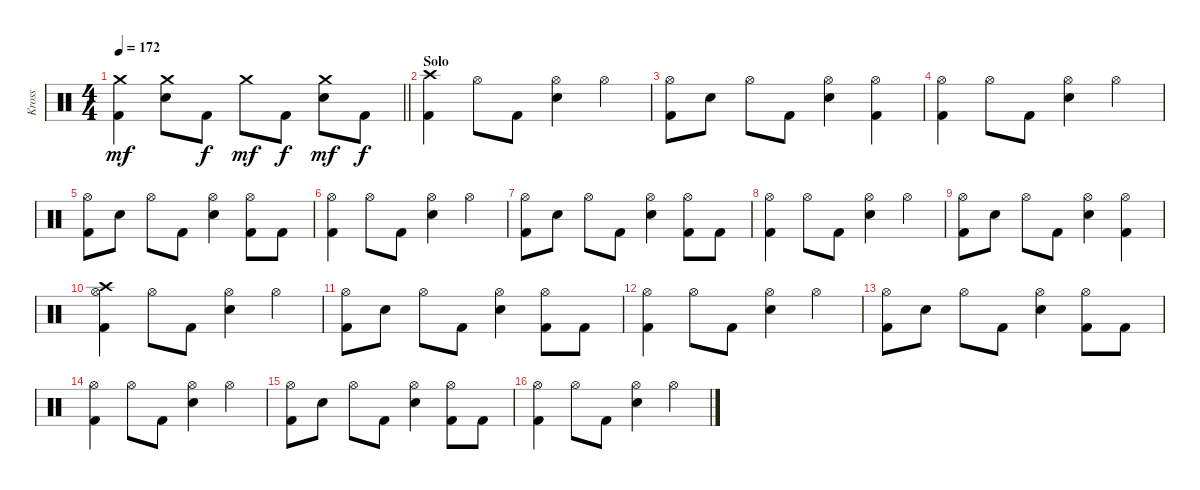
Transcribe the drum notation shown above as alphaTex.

\track ("Kross" "Kross") {instrument percussion}
\staff {score}
\articulation defaults
\ts (4 4)
\tempo 172
\clef neutral
\barLineRight lightlight
\ks c
("Crash medium (hit)" "Kick (hit) 2").4{dy mf} ("Crash medium (hit)" "Electric Snare (hit)").8 "Kick (hit) 2".8{dy f} "Crash medium (hit)".8{dy mf} "Kick (hit) 2".8{dy f} ("Crash medium (hit)" "Electric Snare (hit)").8{dy mf} "Kick (hit) 2".8{dy f} |
\section ("" "Solo")
("Crash high (hit)" "Kick (hit) 2").4 "Hi-Hat (open)".8 "Kick (hit) 2".8 ("Hi-Hat (open)" "Electric Snare (hit)").4 "Hi-Hat (open)".4 |
("Hi-Hat (open)" "Kick (hit) 2").8 "Electric Snare (hit)".8 "Hi-Hat (open)".8 "Kick (hit) 2".8 ("Hi-Hat (open)" "Electric Snare (hit)").4 ("Hi-Hat (open)" "Kick (hit) 2").4 |
("Hi-Hat (open)" "Kick (hit) 2").4 "Hi-Hat (open)".8 "Kick (hit) 2".8 ("Hi-Hat (open)" "Electric Snare (hit)").4 "Hi-Hat (open)".4 |
("Hi-Hat (open)" "Kick (hit) 2").8 "Electric Snare (hit)".8 "Hi-Hat (open)".8 "Kick (hit) 2".8 ("Hi-Hat (open)" "Electric Snare (hit)").4 ("Hi-Hat (open)" "Kick (hit) 2").8 "Kick (hit) 2".8 |
("Hi-Hat (open)" "Kick (hit) 2").4 "Hi-Hat (open)".8 "Kick (hit) 2".8 ("Hi-Hat (open)" "Electric Snare (hit)").4 "Hi-Hat (open)".4 |
("Hi-Hat (open)" "Kick (hit) 2").8 "Electric Snare (hit)".8 "Hi-Hat (open)".8 "Kick (hit) 2".8 ("Hi-Hat (open)" "Electric Snare (hit)").4 ("Hi-Hat (open)" "Kick (hit) 2").8 "Kick (hit) 2".8 |
("Hi-Hat (open)" "Kick (hit) 2").4 "Hi-Hat (open)".8 "Kick (hit) 2".8 ("Hi-Hat (open)" "Electric Snare (hit)").4 "Hi-Hat (open)".4 |
("Hi-Hat (open)" "Kick (hit) 2").8 "Electric Snare (hit)".8 "Hi-Hat (open)".8 "Kick (hit) 2".8 ("Hi-Hat (open)" "Electric Snare (hit)").4 ("Hi-Hat (open)" "Kick (hit) 2").4 |
("Crash high (hit)" "Hi-Hat (open)" "Kick (hit) 2").4 "Hi-Hat (open)".8 "Kick (hit) 2".8 ("Hi-Hat (open)" "Electric Snare (hit)").4 "Hi-Hat (open)".4 |
("Hi-Hat (open)" "Kick (hit) 2").8 "Electric Snare (hit)".8 "Hi-Hat (open)".8 "Kick (hit) 2".8 ("Hi-Hat (open)" "Electric Snare (hit)").4 ("Hi-Hat (open)" "Kick (hit) 2").8 "Kick (hit) 2".8 |
("Hi-Hat (open)" "Kick (hit) 2").4 "Hi-Hat (open)".8 "Kick (hit) 2".8 ("Hi-Hat (open)" "Electric Snare (hit)").4 "Hi-Hat (open)".4 |
("Hi-Hat (open)" "Kick (hit) 2").8 "Electric Snare (hit)".8 "Hi-Hat (open)".8 "Kick (hit) 2".8 ("Hi-Hat (open)" "Electric Snare (hit)").4 ("Hi-Hat (open)" "Kick (hit) 2").8 "Kick (hit) 2".8 |
("Hi-Hat (open)" "Kick (hit) 2").4 "Hi-Hat (open)".8 "Kick (hit) 2".8 ("Hi-Hat (open)" "Electric Snare (hit)").4 "Hi-Hat (open)".4 |
("Hi-Hat (open)" "Kick (hit) 2").8 "Electric Snare (hit)".8 "Hi-Hat (open)".8 "Kick (hit) 2".8 ("Hi-Hat (open)" "Electric Snare (hit)").4 ("Hi-Hat (open)" "Kick (hit) 2").8 "Kick (hit) 2".8 |
("Hi-Hat (open)" "Kick (hit) 2").4 "Hi-Hat (open)".8 "Kick (hit) 2".8 ("Hi-Hat (open)" "Electric Snare (hit)").4 "Hi-Hat (open)".4
